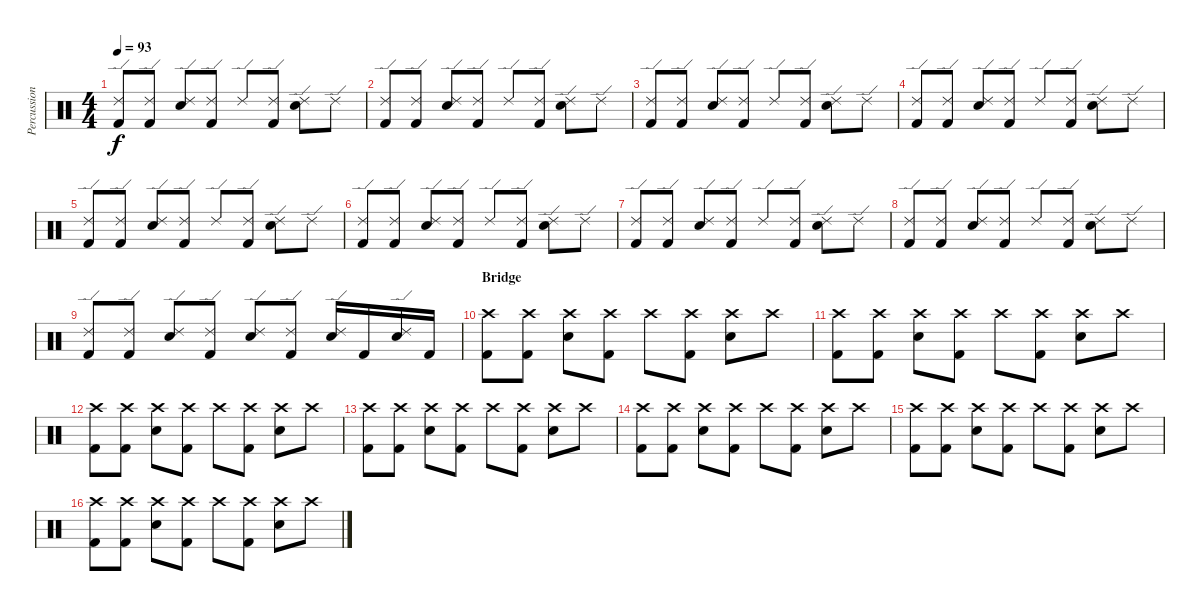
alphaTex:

\track ("Percussion" "Percussion") {instrument percussion}
\staff {score}
\articulation defaults
\ts (4 4)
\tempo 93
\clef neutral
\ks c
("Ride (edge) 2" "Kick (hit) 2").8{dy f} ("Ride (edge) 2" "Kick (hit) 2").8 ("Ride (edge) 2" "Electric Snare (hit)").8 ("Ride (edge) 2" "Kick (hit) 2").8 "Ride (edge) 2".8 ("Ride (edge) 2" "Kick (hit) 2").8 ("Ride (edge) 2" "Electric Snare (hit)").8 "Ride (edge) 2".8 |
("Ride (edge) 2" "Kick (hit) 2").8 ("Ride (edge) 2" "Kick (hit) 2").8 ("Ride (edge) 2" "Electric Snare (hit)").8 ("Ride (edge) 2" "Kick (hit) 2").8 "Ride (edge) 2".8 ("Ride (edge) 2" "Kick (hit) 2").8 ("Ride (edge) 2" "Electric Snare (hit)").8 "Ride (edge) 2".8 |
("Ride (edge) 2" "Kick (hit) 2").8 ("Ride (edge) 2" "Kick (hit) 2").8 ("Ride (edge) 2" "Electric Snare (hit)").8 ("Ride (edge) 2" "Kick (hit) 2").8 "Ride (edge) 2".8 ("Ride (edge) 2" "Kick (hit) 2").8 ("Ride (edge) 2" "Electric Snare (hit)").8 "Ride (edge) 2".8 |
("Ride (edge) 2" "Kick (hit) 2").8 ("Ride (edge) 2" "Kick (hit) 2").8 ("Ride (edge) 2" "Electric Snare (hit)").8 ("Ride (edge) 2" "Kick (hit) 2").8 "Ride (edge) 2".8 ("Ride (edge) 2" "Kick (hit) 2").8 ("Ride (edge) 2" "Electric Snare (hit)").8 "Ride (edge) 2".8 |
("Ride (edge) 2" "Kick (hit) 2").8 ("Ride (edge) 2" "Kick (hit) 2").8 ("Ride (edge) 2" "Electric Snare (hit)").8 ("Ride (edge) 2" "Kick (hit) 2").8 "Ride (edge) 2".8 ("Ride (edge) 2" "Kick (hit) 2").8 ("Ride (edge) 2" "Electric Snare (hit)").8 "Ride (edge) 2".8 |
("Ride (edge) 2" "Kick (hit) 2").8 ("Ride (edge) 2" "Kick (hit) 2").8 ("Ride (edge) 2" "Electric Snare (hit)").8 ("Ride (edge) 2" "Kick (hit) 2").8 "Ride (edge) 2".8 ("Ride (edge) 2" "Kick (hit) 2").8 ("Ride (edge) 2" "Electric Snare (hit)").8 "Ride (edge) 2".8 |
("Ride (edge) 2" "Kick (hit) 2").8 ("Ride (edge) 2" "Kick (hit) 2").8 ("Ride (edge) 2" "Electric Snare (hit)").8 ("Ride (edge) 2" "Kick (hit) 2").8 "Ride (edge) 2".8 ("Ride (edge) 2" "Kick (hit) 2").8 ("Ride (edge) 2" "Electric Snare (hit)").8 "Ride (edge) 2".8 |
("Ride (edge) 2" "Kick (hit) 2").8 ("Ride (edge) 2" "Kick (hit) 2").8 ("Ride (edge) 2" "Electric Snare (hit)").8 ("Ride (edge) 2" "Kick (hit) 2").8 "Ride (edge) 2".8 ("Ride (edge) 2" "Kick (hit) 2").8 ("Ride (edge) 2" "Electric Snare (hit)").8 "Ride (edge) 2".8 |
("Ride (edge) 2" "Kick (hit) 2").8 ("Ride (edge) 2" "Kick (hit) 2").8 ("Ride (edge) 2" "Electric Snare (hit)").8 ("Ride (edge) 2" "Kick (hit) 2").8 ("Ride (edge) 2" "Electric Snare (hit)").8 ("Ride (edge) 2" "Kick (hit) 2").8 ("Ride (edge) 2" "Electric Snare (hit)").16 "Kick (hit) 2".16 ("Ride (edge) 2" "Electric Snare (hit)").16 "Kick (hit) 2".16 |
\section ("" "Bridge")
("Crash high (hit)" "Kick (hit) 2").8 ("Crash high (hit)" "Kick (hit) 2").8 ("Crash high (hit)" "Electric Snare (hit)").8 ("Crash high (hit)" "Kick (hit) 2").8 "Crash high (hit)".8 ("Crash high (hit)" "Kick (hit) 2").8 ("Crash high (hit)" "Electric Snare (hit)").8 "Crash high (hit)".8 |
("Crash high (hit)" "Kick (hit) 2").8 ("Crash high (hit)" "Kick (hit) 2").8 ("Crash high (hit)" "Electric Snare (hit)").8 ("Crash high (hit)" "Kick (hit) 2").8 "Crash high (hit)".8 ("Crash high (hit)" "Kick (hit) 2").8 ("Crash high (hit)" "Electric Snare (hit)").8 "Crash high (hit)".8 |
("Crash high (hit)" "Kick (hit) 2").8 ("Crash high (hit)" "Kick (hit) 2").8 ("Crash high (hit)" "Electric Snare (hit)").8 ("Crash high (hit)" "Kick (hit) 2").8 "Crash high (hit)".8 ("Crash high (hit)" "Kick (hit) 2").8 ("Crash high (hit)" "Electric Snare (hit)").8 "Crash high (hit)".8 |
("Crash high (hit)" "Kick (hit) 2").8 ("Crash high (hit)" "Kick (hit) 2").8 ("Crash high (hit)" "Electric Snare (hit)").8 ("Crash high (hit)" "Kick (hit) 2").8 "Crash high (hit)".8 ("Crash high (hit)" "Kick (hit) 2").8 ("Crash high (hit)" "Electric Snare (hit)").8 "Crash high (hit)".8 |
("Crash high (hit)" "Kick (hit) 2").8 ("Crash high (hit)" "Kick (hit) 2").8 ("Crash high (hit)" "Electric Snare (hit)").8 ("Crash high (hit)" "Kick (hit) 2").8 "Crash high (hit)".8 ("Crash high (hit)" "Kick (hit) 2").8 ("Crash high (hit)" "Electric Snare (hit)").8 "Crash high (hit)".8 |
("Crash high (hit)" "Kick (hit) 2").8 ("Crash high (hit)" "Kick (hit) 2").8 ("Crash high (hit)" "Electric Snare (hit)").8 ("Crash high (hit)" "Kick (hit) 2").8 "Crash high (hit)".8 ("Crash high (hit)" "Kick (hit) 2").8 ("Crash high (hit)" "Electric Snare (hit)").8 "Crash high (hit)".8 |
("Crash high (hit)" "Kick (hit) 2").8 ("Crash high (hit)" "Kick (hit) 2").8 ("Crash high (hit)" "Electric Snare (hit)").8 ("Crash high (hit)" "Kick (hit) 2").8 "Crash high (hit)".8 ("Crash high (hit)" "Kick (hit) 2").8 ("Crash high (hit)" "Electric Snare (hit)").8 "Crash high (hit)".8
